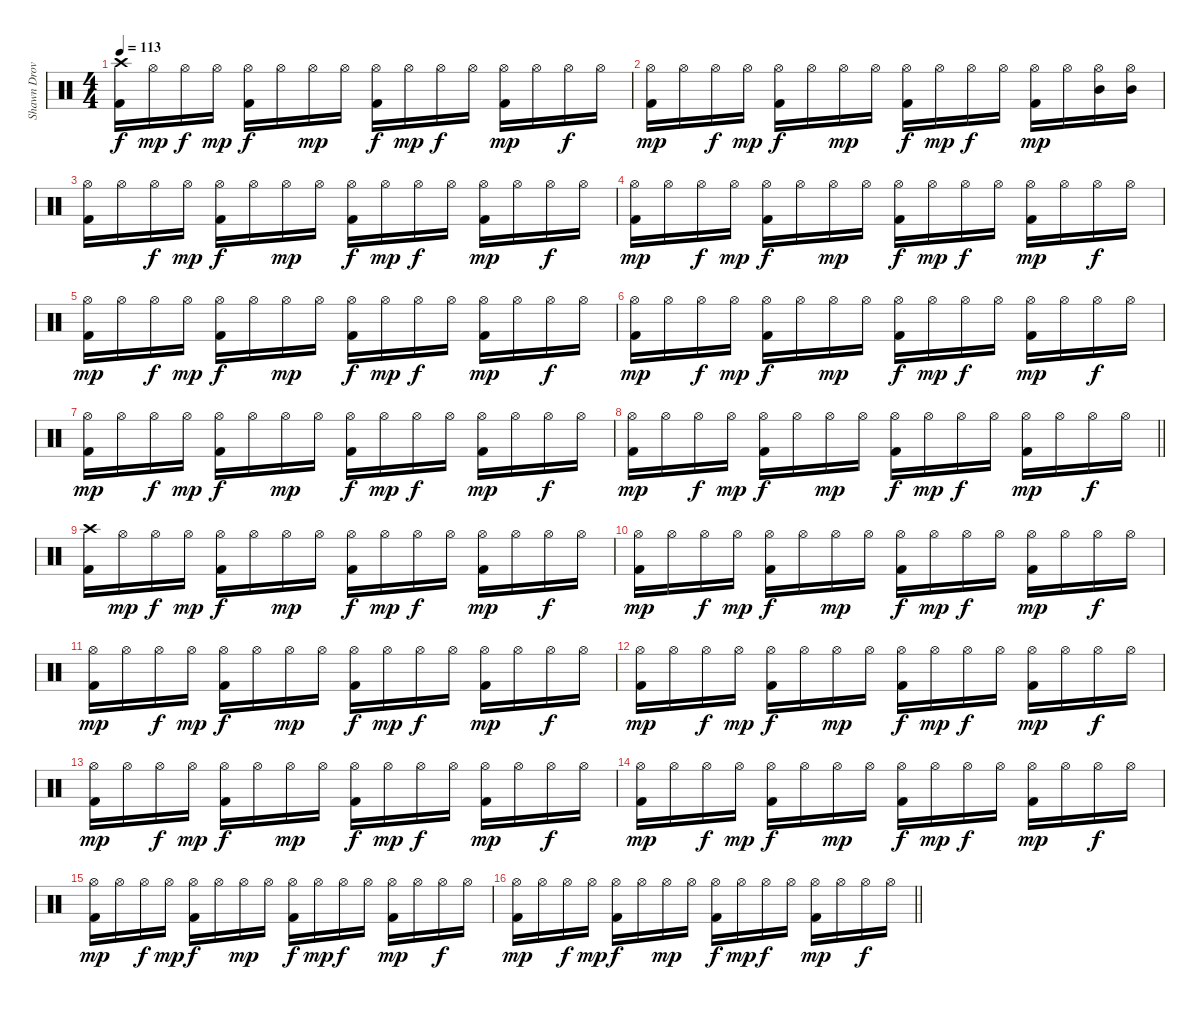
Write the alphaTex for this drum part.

\track ("Shawn Drover" "Shawn Drov") {instrument percussion}
\staff {score}
\articulation defaults
\ts (4 4)
\tempo 113
\clef neutral
\ks c
("Crash high (hit)" "Kick (hit) 2").16{dy f} "Hi-Hat (open)".16{dy mp} "Hi-Hat (open)".16{dy f} "Hi-Hat (open)".16{dy mp} ("Hi-Hat (open)" "Kick (hit) 2").16{dy f} "Hi-Hat (open)".16 "Hi-Hat (open)".16{dy mp} "Hi-Hat (open)".16 ("Hi-Hat (open)" "Kick (hit) 2").16{dy f} "Hi-Hat (open)".16{dy mp} "Hi-Hat (open)".16{dy f} "Hi-Hat (open)".16 ("Hi-Hat (open)" "Kick (hit) 2").16{dy mp} "Hi-Hat (open)".16 "Hi-Hat (open)".16{dy f} "Hi-Hat (open)".16 |
("Hi-Hat (open)" "Kick (hit) 2").16{dy mp} "Hi-Hat (open)".16 "Hi-Hat (open)".16{dy f} "Hi-Hat (open)".16{dy mp} ("Hi-Hat (open)" "Kick (hit) 2").16{dy f} "Hi-Hat (open)".16 "Hi-Hat (open)".16{dy mp} "Hi-Hat (open)".16 ("Hi-Hat (open)" "Kick (hit) 2").16{dy f} "Hi-Hat (open)".16{dy mp} "Hi-Hat (open)".16{dy f} "Hi-Hat (open)".16 ("Hi-Hat (open)" "Kick (hit) 2").16{dy mp} "Hi-Hat (open)".16 ("Hi-Hat (open)" "Mid Tom (hit)").16 ("Hi-Hat (open)" "Mid Tom (hit)").16 |
("Hi-Hat (open)" "Kick (hit) 2").16 "Hi-Hat (open)".16 "Hi-Hat (open)".16{dy f} "Hi-Hat (open)".16{dy mp} ("Hi-Hat (open)" "Kick (hit) 2").16{dy f} "Hi-Hat (open)".16 "Hi-Hat (open)".16{dy mp} "Hi-Hat (open)".16 ("Hi-Hat (open)" "Kick (hit) 2").16{dy f} "Hi-Hat (open)".16{dy mp} "Hi-Hat (open)".16{dy f} "Hi-Hat (open)".16 ("Hi-Hat (open)" "Kick (hit) 2").16{dy mp} "Hi-Hat (open)".16 "Hi-Hat (open)".16{dy f} "Hi-Hat (open)".16 |
("Hi-Hat (open)" "Kick (hit) 2").16{dy mp} "Hi-Hat (open)".16 "Hi-Hat (open)".16{dy f} "Hi-Hat (open)".16{dy mp} ("Hi-Hat (open)" "Kick (hit) 2").16{dy f} "Hi-Hat (open)".16 "Hi-Hat (open)".16{dy mp} "Hi-Hat (open)".16 ("Hi-Hat (open)" "Kick (hit) 2").16{dy f} "Hi-Hat (open)".16{dy mp} "Hi-Hat (open)".16{dy f} "Hi-Hat (open)".16 ("Hi-Hat (open)" "Kick (hit) 2").16{dy mp} "Hi-Hat (open)".16 "Hi-Hat (open)".16{dy f} "Hi-Hat (open)".16 |
("Hi-Hat (open)" "Kick (hit) 2").16{dy mp} "Hi-Hat (open)".16 "Hi-Hat (open)".16{dy f} "Hi-Hat (open)".16{dy mp} ("Hi-Hat (open)" "Kick (hit) 2").16{dy f} "Hi-Hat (open)".16 "Hi-Hat (open)".16{dy mp} "Hi-Hat (open)".16 ("Hi-Hat (open)" "Kick (hit) 2").16{dy f} "Hi-Hat (open)".16{dy mp} "Hi-Hat (open)".16{dy f} "Hi-Hat (open)".16 ("Hi-Hat (open)" "Kick (hit) 2").16{dy mp} "Hi-Hat (open)".16 "Hi-Hat (open)".16{dy f} "Hi-Hat (open)".16 |
("Hi-Hat (open)" "Kick (hit) 2").16{dy mp} "Hi-Hat (open)".16 "Hi-Hat (open)".16{dy f} "Hi-Hat (open)".16{dy mp} ("Hi-Hat (open)" "Kick (hit) 2").16{dy f} "Hi-Hat (open)".16 "Hi-Hat (open)".16{dy mp} "Hi-Hat (open)".16 ("Hi-Hat (open)" "Kick (hit) 2").16{dy f} "Hi-Hat (open)".16{dy mp} "Hi-Hat (open)".16{dy f} "Hi-Hat (open)".16 ("Hi-Hat (open)" "Kick (hit) 2").16{dy mp} "Hi-Hat (open)".16 "Hi-Hat (open)".16{dy f} "Hi-Hat (open)".16 |
("Hi-Hat (open)" "Kick (hit) 2").16{dy mp} "Hi-Hat (open)".16 "Hi-Hat (open)".16{dy f} "Hi-Hat (open)".16{dy mp} ("Hi-Hat (open)" "Kick (hit) 2").16{dy f} "Hi-Hat (open)".16 "Hi-Hat (open)".16{dy mp} "Hi-Hat (open)".16 ("Hi-Hat (open)" "Kick (hit) 2").16{dy f} "Hi-Hat (open)".16{dy mp} "Hi-Hat (open)".16{dy f} "Hi-Hat (open)".16 ("Hi-Hat (open)" "Kick (hit) 2").16{dy mp} "Hi-Hat (open)".16 "Hi-Hat (open)".16{dy f} "Hi-Hat (open)".16 |
\barLineRight lightlight
("Hi-Hat (open)" "Kick (hit) 2").16{dy mp} "Hi-Hat (open)".16 "Hi-Hat (open)".16{dy f} "Hi-Hat (open)".16{dy mp} ("Hi-Hat (open)" "Kick (hit) 2").16{dy f} "Hi-Hat (open)".16 "Hi-Hat (open)".16{dy mp} "Hi-Hat (open)".16 ("Hi-Hat (open)" "Kick (hit) 2").16{dy f} "Hi-Hat (open)".16{dy mp} "Hi-Hat (open)".16{dy f} "Hi-Hat (open)".16 ("Hi-Hat (open)" "Kick (hit) 2").16{dy mp} "Hi-Hat (open)".16 "Hi-Hat (open)".16{dy f} "Hi-Hat (open)".16 |
("Crash high (hit)" "Kick (hit) 2").16 "Hi-Hat (open)".16{dy mp} "Hi-Hat (open)".16{dy f} "Hi-Hat (open)".16{dy mp} ("Hi-Hat (open)" "Kick (hit) 2").16{dy f} "Hi-Hat (open)".16 "Hi-Hat (open)".16{dy mp} "Hi-Hat (open)".16 ("Hi-Hat (open)" "Kick (hit) 2").16{dy f} "Hi-Hat (open)".16{dy mp} "Hi-Hat (open)".16{dy f} "Hi-Hat (open)".16 ("Hi-Hat (open)" "Kick (hit) 2").16{dy mp} "Hi-Hat (open)".16 "Hi-Hat (open)".16{dy f} "Hi-Hat (open)".16 |
("Hi-Hat (open)" "Kick (hit) 2").16{dy mp} "Hi-Hat (open)".16 "Hi-Hat (open)".16{dy f} "Hi-Hat (open)".16{dy mp} ("Hi-Hat (open)" "Kick (hit) 2").16{dy f} "Hi-Hat (open)".16 "Hi-Hat (open)".16{dy mp} "Hi-Hat (open)".16 ("Hi-Hat (open)" "Kick (hit) 2").16{dy f} "Hi-Hat (open)".16{dy mp} "Hi-Hat (open)".16{dy f} "Hi-Hat (open)".16 ("Hi-Hat (open)" "Kick (hit) 2").16{dy mp} "Hi-Hat (open)".16 "Hi-Hat (open)".16{dy f} "Hi-Hat (open)".16 |
("Hi-Hat (open)" "Kick (hit) 2").16{dy mp} "Hi-Hat (open)".16 "Hi-Hat (open)".16{dy f} "Hi-Hat (open)".16{dy mp} ("Hi-Hat (open)" "Kick (hit) 2").16{dy f} "Hi-Hat (open)".16 "Hi-Hat (open)".16{dy mp} "Hi-Hat (open)".16 ("Hi-Hat (open)" "Kick (hit) 2").16{dy f} "Hi-Hat (open)".16{dy mp} "Hi-Hat (open)".16{dy f} "Hi-Hat (open)".16 ("Hi-Hat (open)" "Kick (hit) 2").16{dy mp} "Hi-Hat (open)".16 "Hi-Hat (open)".16{dy f} "Hi-Hat (open)".16 |
("Hi-Hat (open)" "Kick (hit) 2").16{dy mp} "Hi-Hat (open)".16 "Hi-Hat (open)".16{dy f} "Hi-Hat (open)".16{dy mp} ("Hi-Hat (open)" "Kick (hit) 2").16{dy f} "Hi-Hat (open)".16 "Hi-Hat (open)".16{dy mp} "Hi-Hat (open)".16 ("Hi-Hat (open)" "Kick (hit) 2").16{dy f} "Hi-Hat (open)".16{dy mp} "Hi-Hat (open)".16{dy f} "Hi-Hat (open)".16 ("Hi-Hat (open)" "Kick (hit) 2").16{dy mp} "Hi-Hat (open)".16 "Hi-Hat (open)".16{dy f} "Hi-Hat (open)".16 |
("Hi-Hat (open)" "Kick (hit) 2").16{dy mp} "Hi-Hat (open)".16 "Hi-Hat (open)".16{dy f} "Hi-Hat (open)".16{dy mp} ("Hi-Hat (open)" "Kick (hit) 2").16{dy f} "Hi-Hat (open)".16 "Hi-Hat (open)".16{dy mp} "Hi-Hat (open)".16 ("Hi-Hat (open)" "Kick (hit) 2").16{dy f} "Hi-Hat (open)".16{dy mp} "Hi-Hat (open)".16{dy f} "Hi-Hat (open)".16 ("Hi-Hat (open)" "Kick (hit) 2").16{dy mp} "Hi-Hat (open)".16 "Hi-Hat (open)".16{dy f} "Hi-Hat (open)".16 |
("Hi-Hat (open)" "Kick (hit) 2").16{dy mp} "Hi-Hat (open)".16 "Hi-Hat (open)".16{dy f} "Hi-Hat (open)".16{dy mp} ("Hi-Hat (open)" "Kick (hit) 2").16{dy f} "Hi-Hat (open)".16 "Hi-Hat (open)".16{dy mp} "Hi-Hat (open)".16 ("Hi-Hat (open)" "Kick (hit) 2").16{dy f} "Hi-Hat (open)".16{dy mp} "Hi-Hat (open)".16{dy f} "Hi-Hat (open)".16 ("Hi-Hat (open)" "Kick (hit) 2").16{dy mp} "Hi-Hat (open)".16 "Hi-Hat (open)".16{dy f} "Hi-Hat (open)".16 |
("Hi-Hat (open)" "Kick (hit) 2").16{dy mp} "Hi-Hat (open)".16 "Hi-Hat (open)".16{dy f} "Hi-Hat (open)".16{dy mp} ("Hi-Hat (open)" "Kick (hit) 2").16{dy f} "Hi-Hat (open)".16 "Hi-Hat (open)".16{dy mp} "Hi-Hat (open)".16 ("Hi-Hat (open)" "Kick (hit) 2").16{dy f} "Hi-Hat (open)".16{dy mp} "Hi-Hat (open)".16{dy f} "Hi-Hat (open)".16 ("Hi-Hat (open)" "Kick (hit) 2").16{dy mp} "Hi-Hat (open)".16 "Hi-Hat (open)".16{dy f} "Hi-Hat (open)".16 |
\barLineRight lightlight
("Hi-Hat (open)" "Kick (hit) 2").16{dy mp} "Hi-Hat (open)".16 "Hi-Hat (open)".16{dy f} "Hi-Hat (open)".16{dy mp} ("Hi-Hat (open)" "Kick (hit) 2").16{dy f} "Hi-Hat (open)".16 "Hi-Hat (open)".16{dy mp} "Hi-Hat (open)".16 ("Hi-Hat (open)" "Kick (hit) 2").16{dy f} "Hi-Hat (open)".16{dy mp} "Hi-Hat (open)".16{dy f} "Hi-Hat (open)".16 ("Hi-Hat (open)" "Kick (hit) 2").16{dy mp} "Hi-Hat (open)".16 "Hi-Hat (open)".16{dy f} "Hi-Hat (open)".16
